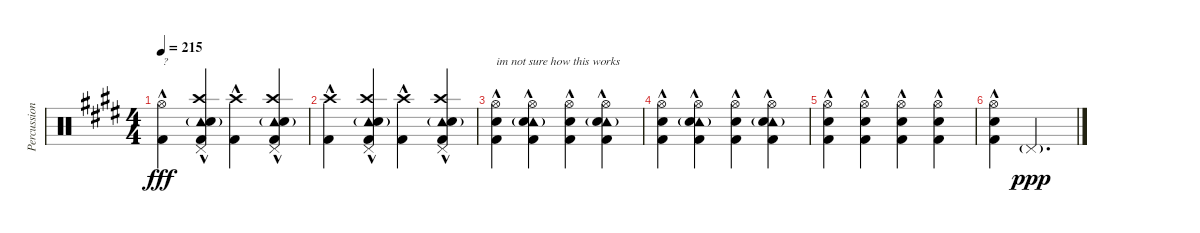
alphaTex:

\track ("Percussion" "Percussion") {instrument percussion}
\staff {score}
\articulation defaults
\ts (4 4)
\tempo 215
\clef neutral
\ks e
("Hi-Hat (open)" "Kick (hit) 2"{hac}).4{txt "?" dy fff} ("Tambourine (hit)"{g} "Pedal Hi-Hat (hit)" "Crash high (hit)" "Electric Snare (hit)"{hac} "Kick (hit) 2"{hac}).4 ("Crash high (hit)" "Kick (hit) 2"{hac}).4 ("Tambourine (hit)"{g} "Pedal Hi-Hat (hit)" "Crash high (hit)" "Electric Snare (hit)"{hac} "Kick (hit) 2"{hac}).4 |
("Crash high (hit)" "Kick (hit) 2"{hac}).4 ("Tambourine (hit)"{g} "Pedal Hi-Hat (hit)" "Crash high (hit)" "Electric Snare (hit)"{hac} "Kick (hit) 2"{hac}).4 ("Crash high (hit)" "Kick (hit) 2"{hac}).4 ("Tambourine (hit)"{g} "Pedal Hi-Hat (hit)" "Crash high (hit)" "Electric Snare (hit)"{hac} "Kick (hit) 2"{hac}).4 |
("Hi-Hat (open)" "Electric Snare (hit)" "Kick (hit) 2"{hac}).4{txt "im not sure how this works"} ("Tambourine (hit)"{g} "Hi-Hat (open)" "Electric Snare (hit)" "Kick (hit) 2"{hac}).4 ("Hi-Hat (open)" "Electric Snare (hit)" "Kick (hit) 2"{hac}).4 ("Tambourine (hit)"{g} "Hi-Hat (open)" "Electric Snare (hit)" "Kick (hit) 2"{hac}).4 |
("Hi-Hat (open)" "Electric Snare (hit)"{hac} "Kick (hit) 2"{hac}).4 ("Tambourine (hit)"{g} "Hi-Hat (open)" "Electric Snare (hit)"{hac} "Kick (hit) 2"{hac}).4 ("Hi-Hat (open)" "Electric Snare (hit)"{hac} "Kick (hit) 2"{hac}).4 ("Tambourine (hit)"{g} "Hi-Hat (open)" "Electric Snare (hit)"{hac} "Kick (hit) 2"{hac}).4 |
("Hi-Hat (open)" "Electric Snare (hit)"{hac} "Kick (hit) 2"{hac}).4 ("Hi-Hat (open)" "Electric Snare (hit)"{hac} "Kick (hit) 2"{hac}).4 ("Hi-Hat (open)" "Electric Snare (hit)"{hac} "Kick (hit) 2"{hac}).4 ("Hi-Hat (open)" "Electric Snare (hit)"{hac} "Kick (hit) 2"{hac}).4 |
("Hi-Hat (open)" "Electric Snare (hit)"{hac} "Kick (hit) 2"{hac}).4 "Pedal Hi-Hat (hit)"{g}.2{d dy ppp}
